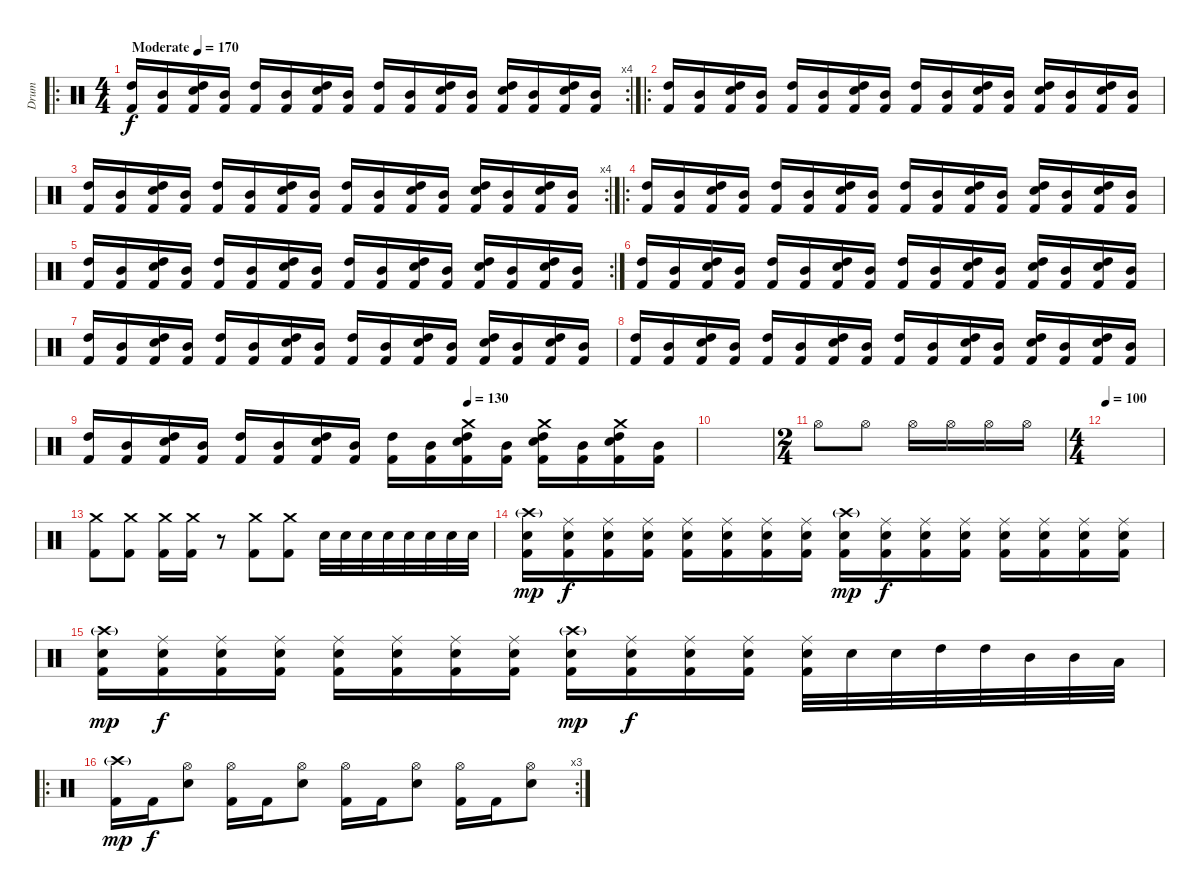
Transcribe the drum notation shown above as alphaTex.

\track ("Drum" "Drum") {instrument percussion}
\staff {score}
\articulation defaults
\ro
\rc 4
\ts (4 4)
\tempo (170 "Moderate")
\clef neutral
\ks c
("High Tom (hit)" "Kick (hit) 2").16{dy f} ("Mid Tom (hit)" "Kick (hit) 2").16 ("High Tom (hit)" "Electric Snare (hit)" "Kick (hit) 2").16 ("Mid Tom (hit)" "Kick (hit) 2").16 ("High Tom (hit)" "Kick (hit) 2").16 ("Mid Tom (hit)" "Kick (hit) 2").16 ("High Tom (hit)" "Electric Snare (hit)" "Kick (hit) 2").16 ("Mid Tom (hit)" "Kick (hit) 2").16 ("High Tom (hit)" "Kick (hit) 2").16 ("Mid Tom (hit)" "Kick (hit) 2").16 ("High Tom (hit)" "Electric Snare (hit)" "Kick (hit) 2").16 ("Mid Tom (hit)" "Kick (hit) 2").16 ("High Tom (hit)" "Electric Snare (hit)" "Kick (hit) 2").16 ("Mid Tom (hit)" "Kick (hit) 2").16 ("High Tom (hit)" "Electric Snare (hit)" "Kick (hit) 2").16 ("Mid Tom (hit)" "Kick (hit) 2").16 |
\ro
("High Tom (hit)" "Kick (hit) 2").16 ("Mid Tom (hit)" "Kick (hit) 2").16 ("High Tom (hit)" "Electric Snare (hit)" "Kick (hit) 2").16 ("Mid Tom (hit)" "Kick (hit) 2").16 ("High Tom (hit)" "Kick (hit) 2").16 ("Mid Tom (hit)" "Kick (hit) 2").16 ("High Tom (hit)" "Electric Snare (hit)" "Kick (hit) 2").16 ("Mid Tom (hit)" "Kick (hit) 2").16 ("High Tom (hit)" "Kick (hit) 2").16 ("Mid Tom (hit)" "Kick (hit) 2").16 ("High Tom (hit)" "Electric Snare (hit)" "Kick (hit) 2").16 ("Mid Tom (hit)" "Kick (hit) 2").16 ("High Tom (hit)" "Electric Snare (hit)" "Kick (hit) 2").16 ("Mid Tom (hit)" "Kick (hit) 2").16 ("High Tom (hit)" "Electric Snare (hit)" "Kick (hit) 2").16 ("Mid Tom (hit)" "Kick (hit) 2").16 |
\rc 4
("High Tom (hit)" "Kick (hit) 2").16 ("Mid Tom (hit)" "Kick (hit) 2").16 ("High Tom (hit)" "Electric Snare (hit)" "Kick (hit) 2").16 ("Mid Tom (hit)" "Kick (hit) 2").16 ("High Tom (hit)" "Kick (hit) 2").16 ("Mid Tom (hit)" "Kick (hit) 2").16 ("High Tom (hit)" "Electric Snare (hit)" "Kick (hit) 2").16 ("Mid Tom (hit)" "Kick (hit) 2").16 ("High Tom (hit)" "Kick (hit) 2").16 ("Mid Tom (hit)" "Kick (hit) 2").16 ("High Tom (hit)" "Electric Snare (hit)" "Kick (hit) 2").16 ("Mid Tom (hit)" "Kick (hit) 2").16 ("High Tom (hit)" "Electric Snare (hit)" "Kick (hit) 2").16 ("Mid Tom (hit)" "Kick (hit) 2").16 ("High Tom (hit)" "Electric Snare (hit)" "Kick (hit) 2").16 ("Mid Tom (hit)" "Kick (hit) 2").16 |
\ro
("High Tom (hit)" "Kick (hit) 2").16 ("Mid Tom (hit)" "Kick (hit) 2").16 ("High Tom (hit)" "Electric Snare (hit)" "Kick (hit) 2").16 ("Mid Tom (hit)" "Kick (hit) 2").16 ("High Tom (hit)" "Kick (hit) 2").16 ("Mid Tom (hit)" "Kick (hit) 2").16 ("High Tom (hit)" "Electric Snare (hit)" "Kick (hit) 2").16 ("Mid Tom (hit)" "Kick (hit) 2").16 ("High Tom (hit)" "Kick (hit) 2").16 ("Mid Tom (hit)" "Kick (hit) 2").16 ("High Tom (hit)" "Electric Snare (hit)" "Kick (hit) 2").16 ("Mid Tom (hit)" "Kick (hit) 2").16 ("High Tom (hit)" "Electric Snare (hit)" "Kick (hit) 2").16 ("Mid Tom (hit)" "Kick (hit) 2").16 ("High Tom (hit)" "Electric Snare (hit)" "Kick (hit) 2").16 ("Mid Tom (hit)" "Kick (hit) 2").16 |
\rc 2
("High Tom (hit)" "Kick (hit) 2").16 ("Mid Tom (hit)" "Kick (hit) 2").16 ("High Tom (hit)" "Electric Snare (hit)" "Kick (hit) 2").16 ("Mid Tom (hit)" "Kick (hit) 2").16 ("High Tom (hit)" "Kick (hit) 2").16 ("Mid Tom (hit)" "Kick (hit) 2").16 ("High Tom (hit)" "Electric Snare (hit)" "Kick (hit) 2").16 ("Mid Tom (hit)" "Kick (hit) 2").16 ("High Tom (hit)" "Kick (hit) 2").16 ("Mid Tom (hit)" "Kick (hit) 2").16 ("High Tom (hit)" "Electric Snare (hit)" "Kick (hit) 2").16 ("Mid Tom (hit)" "Kick (hit) 2").16 ("High Tom (hit)" "Electric Snare (hit)" "Kick (hit) 2").16 ("Mid Tom (hit)" "Kick (hit) 2").16 ("High Tom (hit)" "Electric Snare (hit)" "Kick (hit) 2").16 ("Mid Tom (hit)" "Kick (hit) 2").16 |
("High Tom (hit)" "Kick (hit) 2").16 ("Mid Tom (hit)" "Kick (hit) 2").16 ("High Tom (hit)" "Electric Snare (hit)" "Kick (hit) 2").16 ("Mid Tom (hit)" "Kick (hit) 2").16 ("High Tom (hit)" "Kick (hit) 2").16 ("Mid Tom (hit)" "Kick (hit) 2").16 ("High Tom (hit)" "Electric Snare (hit)" "Kick (hit) 2").16 ("Mid Tom (hit)" "Kick (hit) 2").16 ("High Tom (hit)" "Kick (hit) 2").16 ("Mid Tom (hit)" "Kick (hit) 2").16 ("High Tom (hit)" "Electric Snare (hit)" "Kick (hit) 2").16 ("Mid Tom (hit)" "Kick (hit) 2").16 ("High Tom (hit)" "Electric Snare (hit)" "Kick (hit) 2").16 ("Mid Tom (hit)" "Kick (hit) 2").16 ("High Tom (hit)" "Electric Snare (hit)" "Kick (hit) 2").16 ("Mid Tom (hit)" "Kick (hit) 2").16 |
("High Tom (hit)" "Kick (hit) 2").16 ("Mid Tom (hit)" "Kick (hit) 2").16 ("High Tom (hit)" "Electric Snare (hit)" "Kick (hit) 2").16 ("Mid Tom (hit)" "Kick (hit) 2").16 ("High Tom (hit)" "Kick (hit) 2").16 ("Mid Tom (hit)" "Kick (hit) 2").16 ("High Tom (hit)" "Electric Snare (hit)" "Kick (hit) 2").16 ("Mid Tom (hit)" "Kick (hit) 2").16 ("High Tom (hit)" "Kick (hit) 2").16 ("Mid Tom (hit)" "Kick (hit) 2").16 ("High Tom (hit)" "Electric Snare (hit)" "Kick (hit) 2").16 ("Mid Tom (hit)" "Kick (hit) 2").16 ("High Tom (hit)" "Electric Snare (hit)" "Kick (hit) 2").16 ("Mid Tom (hit)" "Kick (hit) 2").16 ("High Tom (hit)" "Electric Snare (hit)" "Kick (hit) 2").16 ("Mid Tom (hit)" "Kick (hit) 2").16 |
("High Tom (hit)" "Kick (hit) 2").16 ("Mid Tom (hit)" "Kick (hit) 2").16 ("High Tom (hit)" "Electric Snare (hit)" "Kick (hit) 2").16 ("Mid Tom (hit)" "Kick (hit) 2").16 ("High Tom (hit)" "Kick (hit) 2").16 ("Mid Tom (hit)" "Kick (hit) 2").16 ("High Tom (hit)" "Electric Snare (hit)" "Kick (hit) 2").16 ("Mid Tom (hit)" "Kick (hit) 2").16 ("High Tom (hit)" "Kick (hit) 2").16 ("Mid Tom (hit)" "Kick (hit) 2").16 ("High Tom (hit)" "Electric Snare (hit)" "Kick (hit) 2").16 ("Mid Tom (hit)" "Kick (hit) 2").16 ("High Tom (hit)" "Electric Snare (hit)" "Kick (hit) 2").16 ("Mid Tom (hit)" "Kick (hit) 2").16 ("High Tom (hit)" "Electric Snare (hit)" "Kick (hit) 2").16 ("Mid Tom (hit)" "Kick (hit) 2").16 |
\tempo (130 0.625)
("High Tom (hit)" "Kick (hit) 2").16 ("Mid Tom (hit)" "Kick (hit) 2").16 ("High Tom (hit)" "Electric Snare (hit)" "Kick (hit) 2").16 ("Mid Tom (hit)" "Kick (hit) 2").16 ("High Tom (hit)" "Kick (hit) 2").16 ("Mid Tom (hit)" "Kick (hit) 2").16 ("High Tom (hit)" "Electric Snare (hit)" "Kick (hit) 2").16 ("Mid Tom (hit)" "Kick (hit) 2").16 ("High Tom (hit)" "Kick (hit) 2").16 ("Mid Tom (hit)" "Kick (hit) 2").16 ("Crash medium (hit)" "High Tom (hit)" "Electric Snare (hit)" "Kick (hit) 2").16 ("Mid Tom (hit)" "Kick (hit) 2").16 ("Crash medium (hit)" "High Tom (hit)" "Electric Snare (hit)" "Kick (hit) 2").16 ("Mid Tom (hit)" "Kick (hit) 2").16 ("Crash medium (hit)" "High Tom (hit)" "Electric Snare (hit)" "Kick (hit) 2").16 ("Mid Tom (hit)" "Kick (hit) 2").16 |
|
\ts (2 4)
"Hi-Hat (open)".8 "Hi-Hat (open)".8 "Hi-Hat (open)".16 "Hi-Hat (open)".16 "Hi-Hat (open)".16 "Hi-Hat (open)".16 |
\ts (4 4)
\tempo 100
|
("Crash medium (hit)" "Kick (hit) 2").8 ("Crash medium (hit)" "Kick (hit) 2").8 ("Crash medium (hit)" "Kick (hit) 2").16 ("Crash medium (hit)" "Kick (hit) 2").16 r.8 ("Crash medium (hit)" "Kick (hit) 2").8 ("Crash medium (hit)" "Kick (hit) 2").8 "Electric Snare (hit)".32 "Electric Snare (hit)".32 "Electric Snare (hit)".32 "Electric Snare (hit)".32 "Electric Snare (hit)".32 "Electric Snare (hit)".32 "Electric Snare (hit)".32 "Electric Snare (hit)".32 |
("Crash high (hit)"{g} "Electric Snare (hit)" "Kick (hit) 2").16{dy mp} ("Ride (middle)" "Electric Snare (hit)" "Kick (hit) 2").16{dy f} ("Ride (middle)" "Electric Snare (hit)" "Kick (hit) 2").16 ("Ride (middle)" "Electric Snare (hit)" "Kick (hit) 2").16 ("Ride (middle)" "Electric Snare (hit)" "Kick (hit) 2").16 ("Ride (middle)" "Electric Snare (hit)" "Kick (hit) 2").16 ("Ride (middle)" "Electric Snare (hit)" "Kick (hit) 2").16 ("Ride (middle)" "Electric Snare (hit)" "Kick (hit) 2").16 ("Crash high (hit)"{g} "Electric Snare (hit)" "Kick (hit) 2").16{dy mp} ("Ride (middle)" "Electric Snare (hit)" "Kick (hit) 2").16{dy f} ("Ride (middle)" "Electric Snare (hit)" "Kick (hit) 2").16 ("Ride (middle)" "Electric Snare (hit)" "Kick (hit) 2").16 ("Ride (middle)" "Electric Snare (hit)" "Kick (hit) 2").16 ("Ride (middle)" "Electric Snare (hit)" "Kick (hit) 2").16 ("Ride (middle)" "Electric Snare (hit)" "Kick (hit) 2").16 ("Ride (middle)" "Electric Snare (hit)" "Kick (hit) 2").16 |
("Crash high (hit)"{g} "Electric Snare (hit)" "Kick (hit) 2").16{dy mp} ("Ride (middle)" "Electric Snare (hit)" "Kick (hit) 2").16{dy f} ("Ride (middle)" "Electric Snare (hit)" "Kick (hit) 2").16 ("Ride (middle)" "Electric Snare (hit)" "Kick (hit) 2").16 ("Ride (middle)" "Electric Snare (hit)" "Kick (hit) 2").16 ("Ride (middle)" "Electric Snare (hit)" "Kick (hit) 2").16 ("Ride (middle)" "Electric Snare (hit)" "Kick (hit) 2").16 ("Ride (middle)" "Electric Snare (hit)" "Kick (hit) 2").16 ("Crash high (hit)"{g} "Electric Snare (hit)" "Kick (hit) 2").16{dy mp} ("Ride (middle)" "Electric Snare (hit)" "Kick (hit) 2").16{dy f} ("Ride (middle)" "Electric Snare (hit)" "Kick (hit) 2").16 ("Ride (middle)" "Electric Snare (hit)" "Kick (hit) 2").16 ("Ride (middle)" "Electric Snare (hit)" "Kick (hit) 2").32 "Electric Snare (hit)".32 "Electric Snare (hit)".32 "High Tom (hit)".32 "High Tom (hit)".32 "Mid Tom (hit)".32 "Mid Tom (hit)".32 "Low Tom (hit)".32 |
\ro
\rc 3
("Crash high (hit)"{g} "Kick (hit) 2").16{dy mp} "Kick (hit) 2".16{dy f} ("Hi-Hat (open)" "Electric Snare (hit)").8 ("Hi-Hat (open)" "Kick (hit) 2").16 "Kick (hit) 2".16 ("Hi-Hat (open)" "Electric Snare (hit)").8 ("Hi-Hat (open)" "Kick (hit) 2").16 "Kick (hit) 2".16 ("Hi-Hat (open)" "Electric Snare (hit)").8 ("Hi-Hat (open)" "Kick (hit) 2").16 "Kick (hit) 2".16 ("Hi-Hat (open)" "Electric Snare (hit)").8
